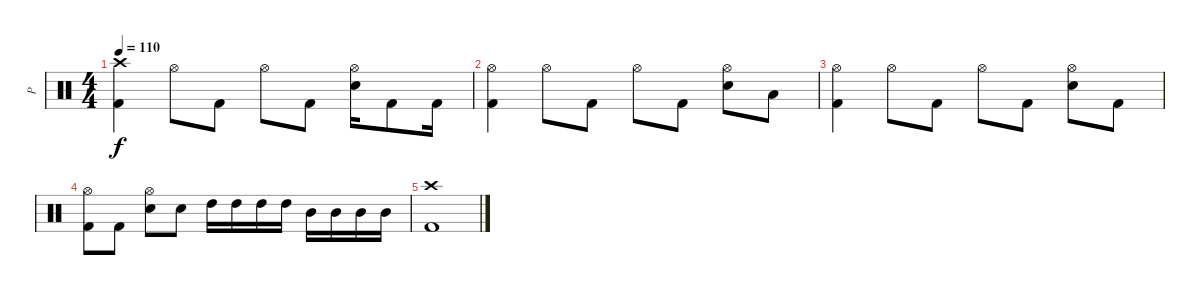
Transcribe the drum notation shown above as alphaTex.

\track ("P" "P") {instrument percussion}
\staff {score}
\articulation defaults
\ts (4 4)
\tempo 110
\clef neutral
\ks c
("Crash high (hit)" "Kick (hit) 2").4{dy f} "Hi-Hat (open)".8 "Kick (hit) 2".8 "Hi-Hat (open)".8 "Kick (hit) 2".8 ("Hi-Hat (open)" "Electric Snare (hit)").16 "Kick (hit) 2".8 "Kick (hit) 2".16 |
("Hi-Hat (open)" "Kick (hit) 2").4 "Hi-Hat (open)".8 "Kick (hit) 2".8 "Hi-Hat (open)".8 "Kick (hit) 2".8 ("Hi-Hat (open)" "Electric Snare (hit)").8 "Low Tom (hit)".8 |
("Hi-Hat (open)" "Kick (hit) 2").4 "Hi-Hat (open)".8 "Kick (hit) 2".8 "Hi-Hat (open)".8 "Kick (hit) 2".8 ("Hi-Hat (open)" "Electric Snare (hit)").8 "Kick (hit) 2".8 |
("Hi-Hat (open)" "Kick (hit) 2").8 "Kick (hit) 2".8 ("Hi-Hat (open)" "Electric Snare (hit)").8 "Electric Snare (hit)".8 "High Tom (hit)".16 "High Tom (hit)".16 "High Tom (hit)".16 "High Tom (hit)".16 "Mid Tom (hit)".16 "Mid Tom (hit)".16 "Mid Tom (hit)".16 "Mid Tom (hit)".16 |
("Crash high (hit)" "Kick (hit) 2").1
